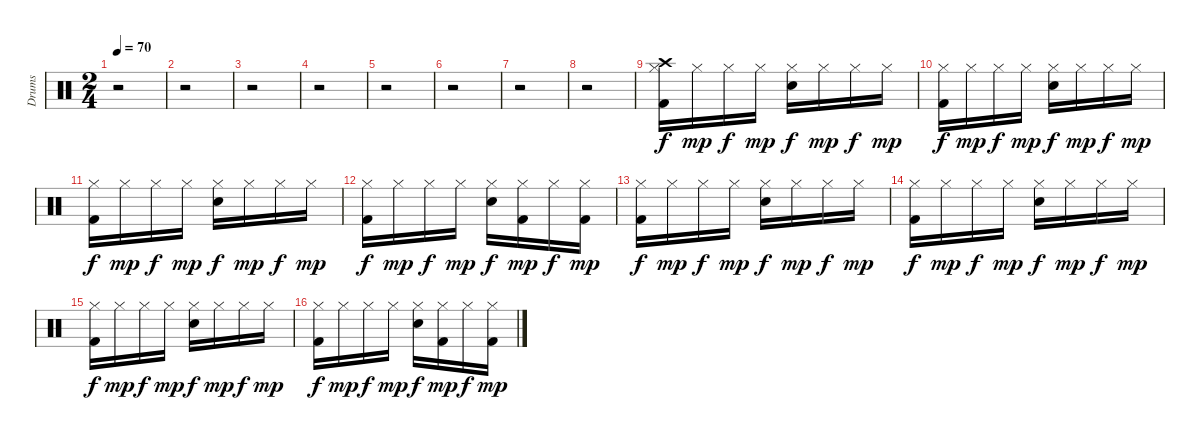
\track ("Drums" "Drums") {instrument percussion}
\staff {score}
\articulation defaults
\ts (2 4)
\tempo 70
\clef neutral
\ks c
r.2{dy f} |
r.2 |
r.2 |
r.2 |
r.2 |
r.2 |
r.2 |
r.2 |
("Crash high (hit)" "Hi-Hat (closed)" "Kick (hit) 2").16 "Hi-Hat (closed)".16{dy mp} "Hi-Hat (closed)".16{dy f} "Hi-Hat (closed)".16{dy mp} ("Hi-Hat (closed)" "Electric Snare (hit)").16{dy f} "Hi-Hat (closed)".16{dy mp} "Hi-Hat (closed)".16{dy f} "Hi-Hat (closed)".16{dy mp} |
("Hi-Hat (closed)" "Kick (hit) 2").16{dy f} "Hi-Hat (closed)".16{dy mp} "Hi-Hat (closed)".16{dy f} "Hi-Hat (closed)".16{dy mp} ("Hi-Hat (closed)" "Electric Snare (hit)").16{dy f} "Hi-Hat (closed)".16{dy mp} "Hi-Hat (closed)".16{dy f} "Hi-Hat (closed)".16{dy mp} |
("Hi-Hat (closed)" "Kick (hit) 2").16{dy f} "Hi-Hat (closed)".16{dy mp} "Hi-Hat (closed)".16{dy f} "Hi-Hat (closed)".16{dy mp} ("Hi-Hat (closed)" "Electric Snare (hit)").16{dy f} "Hi-Hat (closed)".16{dy mp} "Hi-Hat (closed)".16{dy f} "Hi-Hat (closed)".16{dy mp} |
("Hi-Hat (closed)" "Kick (hit) 2").16{dy f} "Hi-Hat (closed)".16{dy mp} "Hi-Hat (closed)".16{dy f} "Hi-Hat (closed)".16{dy mp} ("Hi-Hat (closed)" "Electric Snare (hit)").16{dy f} ("Hi-Hat (closed)" "Kick (hit) 2").16{dy mp} "Hi-Hat (closed)".16{dy f} ("Hi-Hat (closed)" "Kick (hit) 2").16{dy mp} |
("Hi-Hat (closed)" "Kick (hit) 2").16{dy f} "Hi-Hat (closed)".16{dy mp} "Hi-Hat (closed)".16{dy f} "Hi-Hat (closed)".16{dy mp} ("Hi-Hat (closed)" "Electric Snare (hit)").16{dy f} "Hi-Hat (closed)".16{dy mp} "Hi-Hat (closed)".16{dy f} "Hi-Hat (closed)".16{dy mp} |
("Hi-Hat (closed)" "Kick (hit) 2").16{dy f} "Hi-Hat (closed)".16{dy mp} "Hi-Hat (closed)".16{dy f} "Hi-Hat (closed)".16{dy mp} ("Hi-Hat (closed)" "Electric Snare (hit)").16{dy f} "Hi-Hat (closed)".16{dy mp} "Hi-Hat (closed)".16{dy f} "Hi-Hat (closed)".16{dy mp} |
("Hi-Hat (closed)" "Kick (hit) 2").16{dy f} "Hi-Hat (closed)".16{dy mp} "Hi-Hat (closed)".16{dy f} "Hi-Hat (closed)".16{dy mp} ("Hi-Hat (closed)" "Electric Snare (hit)").16{dy f} "Hi-Hat (closed)".16{dy mp} "Hi-Hat (closed)".16{dy f} "Hi-Hat (closed)".16{dy mp} |
("Hi-Hat (closed)" "Kick (hit) 2").16{dy f} "Hi-Hat (closed)".16{dy mp} "Hi-Hat (closed)".16{dy f} "Hi-Hat (closed)".16{dy mp} ("Hi-Hat (closed)" "Electric Snare (hit)").16{dy f} ("Hi-Hat (closed)" "Kick (hit) 2").16{dy mp} "Hi-Hat (closed)".16{dy f} ("Hi-Hat (closed)" "Kick (hit) 2").16{dy mp}
